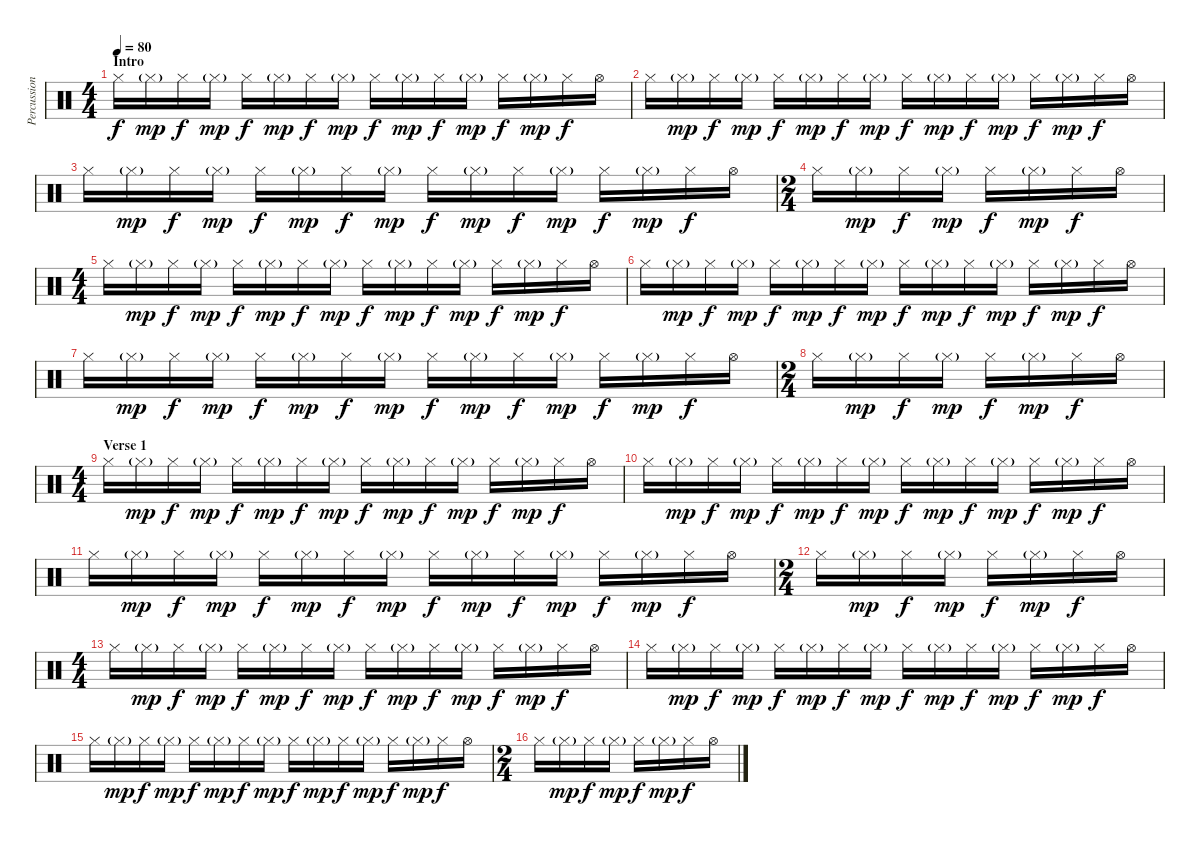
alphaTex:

\track ("Percussion" "Percussion") {instrument percussion}
\staff {score}
\articulation defaults
\ts (4 4)
\section ("" "Intro")
\tempo 80
\clef neutral
\ks c "Hi-Hat (closed)".16{dy f} "Hi-Hat (closed)"{g}.16{dy mp} "Hi-Hat (closed)".16{dy f} "Hi-Hat (closed)"{g}.16{dy mp} "Hi-Hat (closed)".16{dy f} "Hi-Hat (closed)"{g}.16{dy mp} "Hi-Hat (closed)".16{dy f} "Hi-Hat (closed)"{g}.16{dy mp} "Hi-Hat (closed)".16{dy f} "Hi-Hat (closed)"{g}.16{dy mp} "Hi-Hat (closed)".16{dy f} "Hi-Hat (closed)"{g}.16{dy mp} "Hi-Hat (closed)".16{dy f} "Hi-Hat (closed)"{g}.16{dy mp} "Hi-Hat (closed)".16{dy f} "Hi-Hat (open)".16
|
"Hi-Hat (closed)".16 "Hi-Hat (closed)"{g}.16{dy mp} "Hi-Hat (closed)".16{dy f} "Hi-Hat (closed)"{g}.16{dy mp} "Hi-Hat (closed)".16{dy f} "Hi-Hat (closed)"{g}.16{dy mp} "Hi-Hat (closed)".16{dy f} "Hi-Hat (closed)"{g}.16{dy mp} "Hi-Hat (closed)".16{dy f} "Hi-Hat (closed)"{g}.16{dy mp} "Hi-Hat (closed)".16{dy f} "Hi-Hat (closed)"{g}.16{dy mp} "Hi-Hat (closed)".16{dy f} "Hi-Hat (closed)"{g}.16{dy mp} "Hi-Hat (closed)".16{dy f} "Hi-Hat (open)".16 |
"Hi-Hat (closed)".16 "Hi-Hat (closed)"{g}.16{dy mp} "Hi-Hat (closed)".16{dy f} "Hi-Hat (closed)"{g}.16{dy mp} "Hi-Hat (closed)".16{dy f} "Hi-Hat (closed)"{g}.16{dy mp} "Hi-Hat (closed)".16{dy f} "Hi-Hat (closed)"{g}.16{dy mp} "Hi-Hat (closed)".16{dy f} "Hi-Hat (closed)"{g}.16{dy mp} "Hi-Hat (closed)".16{dy f} "Hi-Hat (closed)"{g}.16{dy mp} "Hi-Hat (closed)".16{dy f} "Hi-Hat (closed)"{g}.16{dy mp} "Hi-Hat (closed)".16{dy f} "Hi-Hat (open)".16 |
\ts (2 4)
"Hi-Hat (closed)".16 "Hi-Hat (closed)"{g}.16{dy mp} "Hi-Hat (closed)".16{dy f} "Hi-Hat (closed)"{g}.16{dy mp} "Hi-Hat (closed)".16{dy f} "Hi-Hat (closed)"{g}.16{dy mp} "Hi-Hat (closed)".16{dy f} "Hi-Hat (open)".16 |
\ts (4 4)
"Hi-Hat (closed)".16 "Hi-Hat (closed)"{g}.16{dy mp} "Hi-Hat (closed)".16{dy f} "Hi-Hat (closed)"{g}.16{dy mp} "Hi-Hat (closed)".16{dy f} "Hi-Hat (closed)"{g}.16{dy mp} "Hi-Hat (closed)".16{dy f} "Hi-Hat (closed)"{g}.16{dy mp} "Hi-Hat (closed)".16{dy f} "Hi-Hat (closed)"{g}.16{dy mp} "Hi-Hat (closed)".16{dy f} "Hi-Hat (closed)"{g}.16{dy mp} "Hi-Hat (closed)".16{dy f} "Hi-Hat (closed)"{g}.16{dy mp} "Hi-Hat (closed)".16{dy f} "Hi-Hat (open)".16 |
"Hi-Hat (closed)".16 "Hi-Hat (closed)"{g}.16{dy mp} "Hi-Hat (closed)".16{dy f} "Hi-Hat (closed)"{g}.16{dy mp} "Hi-Hat (closed)".16{dy f} "Hi-Hat (closed)"{g}.16{dy mp} "Hi-Hat (closed)".16{dy f} "Hi-Hat (closed)"{g}.16{dy mp} "Hi-Hat (closed)".16{dy f} "Hi-Hat (closed)"{g}.16{dy mp} "Hi-Hat (closed)".16{dy f} "Hi-Hat (closed)"{g}.16{dy mp} "Hi-Hat (closed)".16{dy f} "Hi-Hat (closed)"{g}.16{dy mp} "Hi-Hat (closed)".16{dy f} "Hi-Hat (open)".16 |
"Hi-Hat (closed)".16 "Hi-Hat (closed)"{g}.16{dy mp} "Hi-Hat (closed)".16{dy f} "Hi-Hat (closed)"{g}.16{dy mp} "Hi-Hat (closed)".16{dy f} "Hi-Hat (closed)"{g}.16{dy mp} "Hi-Hat (closed)".16{dy f} "Hi-Hat (closed)"{g}.16{dy mp} "Hi-Hat (closed)".16{dy f} "Hi-Hat (closed)"{g}.16{dy mp} "Hi-Hat (closed)".16{dy f} "Hi-Hat (closed)"{g}.16{dy mp} "Hi-Hat (closed)".16{dy f} "Hi-Hat (closed)"{g}.16{dy mp} "Hi-Hat (closed)".16{dy f} "Hi-Hat (open)".16 |
\ts (2 4)
"Hi-Hat (closed)".16 "Hi-Hat (closed)"{g}.16{dy mp} "Hi-Hat (closed)".16{dy f} "Hi-Hat (closed)"{g}.16{dy mp} "Hi-Hat (closed)".16{dy f} "Hi-Hat (closed)"{g}.16{dy mp} "Hi-Hat (closed)".16{dy f} "Hi-Hat (open)".16 |
\ts (4 4)
\section ("" "Verse 1")
"Hi-Hat (closed)".16 "Hi-Hat (closed)"{g}.16{dy mp} "Hi-Hat (closed)".16{dy f} "Hi-Hat (closed)"{g}.16{dy mp} "Hi-Hat (closed)".16{dy f} "Hi-Hat (closed)"{g}.16{dy mp} "Hi-Hat (closed)".16{dy f} "Hi-Hat (closed)"{g}.16{dy mp} "Hi-Hat (closed)".16{dy f} "Hi-Hat (closed)"{g}.16{dy mp} "Hi-Hat (closed)".16{dy f} "Hi-Hat (closed)"{g}.16{dy mp} "Hi-Hat (closed)".16{dy f} "Hi-Hat (closed)"{g}.16{dy mp} "Hi-Hat (closed)".16{dy f} "Hi-Hat (open)".16 |
"Hi-Hat (closed)".16 "Hi-Hat (closed)"{g}.16{dy mp} "Hi-Hat (closed)".16{dy f} "Hi-Hat (closed)"{g}.16{dy mp} "Hi-Hat (closed)".16{dy f} "Hi-Hat (closed)"{g}.16{dy mp} "Hi-Hat (closed)".16{dy f} "Hi-Hat (closed)"{g}.16{dy mp} "Hi-Hat (closed)".16{dy f} "Hi-Hat (closed)"{g}.16{dy mp} "Hi-Hat (closed)".16{dy f} "Hi-Hat (closed)"{g}.16{dy mp} "Hi-Hat (closed)".16{dy f} "Hi-Hat (closed)"{g}.16{dy mp} "Hi-Hat (closed)".16{dy f} "Hi-Hat (open)".16 |
"Hi-Hat (closed)".16 "Hi-Hat (closed)"{g}.16{dy mp} "Hi-Hat (closed)".16{dy f} "Hi-Hat (closed)"{g}.16{dy mp} "Hi-Hat (closed)".16{dy f} "Hi-Hat (closed)"{g}.16{dy mp} "Hi-Hat (closed)".16{dy f} "Hi-Hat (closed)"{g}.16{dy mp} "Hi-Hat (closed)".16{dy f} "Hi-Hat (closed)"{g}.16{dy mp} "Hi-Hat (closed)".16{dy f} "Hi-Hat (closed)"{g}.16{dy mp} "Hi-Hat (closed)".16{dy f} "Hi-Hat (closed)"{g}.16{dy mp} "Hi-Hat (closed)".16{dy f} "Hi-Hat (open)".16 |
\ts (2 4)
"Hi-Hat (closed)".16 "Hi-Hat (closed)"{g}.16{dy mp} "Hi-Hat (closed)".16{dy f} "Hi-Hat (closed)"{g}.16{dy mp} "Hi-Hat (closed)".16{dy f} "Hi-Hat (closed)"{g}.16{dy mp} "Hi-Hat (closed)".16{dy f} "Hi-Hat (open)".16 |
\ts (4 4)
"Hi-Hat (closed)".16 "Hi-Hat (closed)"{g}.16{dy mp} "Hi-Hat (closed)".16{dy f} "Hi-Hat (closed)"{g}.16{dy mp} "Hi-Hat (closed)".16{dy f} "Hi-Hat (closed)"{g}.16{dy mp} "Hi-Hat (closed)".16{dy f} "Hi-Hat (closed)"{g}.16{dy mp} "Hi-Hat (closed)".16{dy f} "Hi-Hat (closed)"{g}.16{dy mp} "Hi-Hat (closed)".16{dy f} "Hi-Hat (closed)"{g}.16{dy mp} "Hi-Hat (closed)".16{dy f} "Hi-Hat (closed)"{g}.16{dy mp} "Hi-Hat (closed)".16{dy f} "Hi-Hat (open)".16 |
"Hi-Hat (closed)".16 "Hi-Hat (closed)"{g}.16{dy mp} "Hi-Hat (closed)".16{dy f} "Hi-Hat (closed)"{g}.16{dy mp} "Hi-Hat (closed)".16{dy f} "Hi-Hat (closed)"{g}.16{dy mp} "Hi-Hat (closed)".16{dy f} "Hi-Hat (closed)"{g}.16{dy mp} "Hi-Hat (closed)".16{dy f} "Hi-Hat (closed)"{g}.16{dy mp} "Hi-Hat (closed)".16{dy f} "Hi-Hat (closed)"{g}.16{dy mp} "Hi-Hat (closed)".16{dy f} "Hi-Hat (closed)"{g}.16{dy mp} "Hi-Hat (closed)".16{dy f} "Hi-Hat (open)".16 |
"Hi-Hat (closed)".16 "Hi-Hat (closed)"{g}.16{dy mp} "Hi-Hat (closed)".16{dy f} "Hi-Hat (closed)"{g}.16{dy mp} "Hi-Hat (closed)".16{dy f} "Hi-Hat (closed)"{g}.16{dy mp} "Hi-Hat (closed)".16{dy f} "Hi-Hat (closed)"{g}.16{dy mp} "Hi-Hat (closed)".16{dy f} "Hi-Hat (closed)"{g}.16{dy mp} "Hi-Hat (closed)".16{dy f} "Hi-Hat (closed)"{g}.16{dy mp} "Hi-Hat (closed)".16{dy f} "Hi-Hat (closed)"{g}.16{dy mp} "Hi-Hat (closed)".16{dy f} "Hi-Hat (open)".16 |
\ts (2 4)
"Hi-Hat (closed)".16 "Hi-Hat (closed)"{g}.16{dy mp} "Hi-Hat (closed)".16{dy f} "Hi-Hat (closed)"{g}.16{dy mp} "Hi-Hat (closed)".16{dy f} "Hi-Hat (closed)"{g}.16{dy mp} "Hi-Hat (closed)".16{dy f} "Hi-Hat (open)".16
